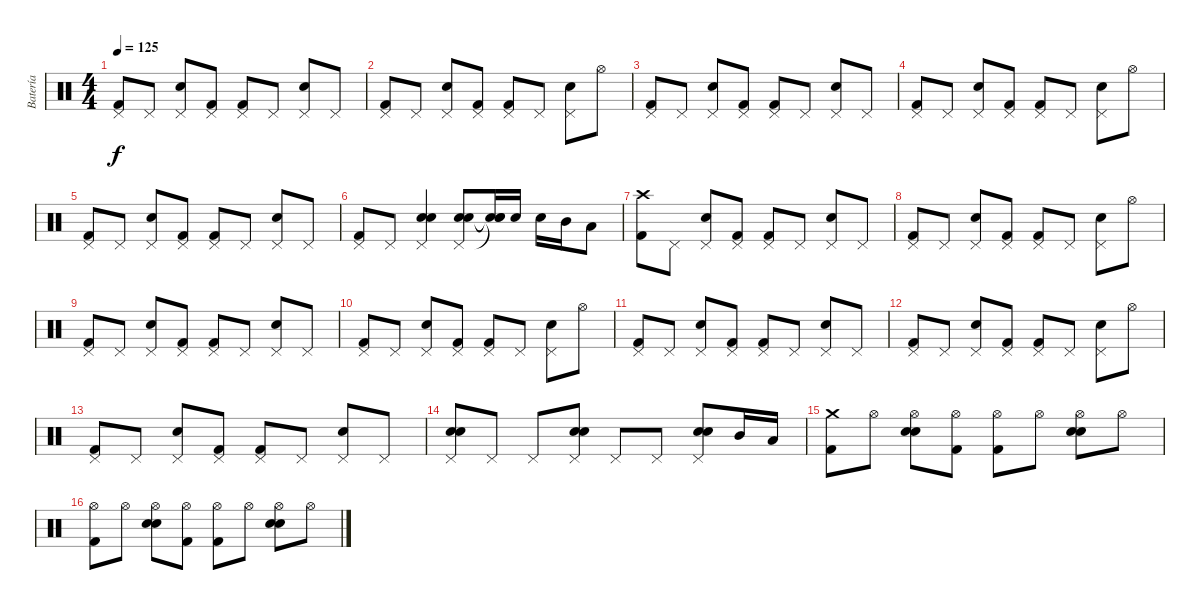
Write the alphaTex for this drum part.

\track ("Batería" "Batería") {instrument percussion}
\staff {score}
\articulation defaults
\ts (4 4)
\tempo 125
\clef neutral
\ks c
("Kick (hit) 2" "Pedal Hi-Hat (hit)").8{dy f} "Pedal Hi-Hat (hit)".8 ("Electric Snare (hit)" "Pedal Hi-Hat (hit)").8 ("Kick (hit) 2" "Pedal Hi-Hat (hit)").8 ("Kick (hit) 2" "Pedal Hi-Hat (hit)").8 "Pedal Hi-Hat (hit)".8 ("Electric Snare (hit)" "Pedal Hi-Hat (hit)").8 "Pedal Hi-Hat (hit)".8 |
("Kick (hit) 2" "Pedal Hi-Hat (hit)").8 "Pedal Hi-Hat (hit)".8 ("Electric Snare (hit)" "Pedal Hi-Hat (hit)").8 ("Kick (hit) 2" "Pedal Hi-Hat (hit)").8 ("Kick (hit) 2" "Pedal Hi-Hat (hit)").8 "Pedal Hi-Hat (hit)".8 ("Electric Snare (hit)" "Pedal Hi-Hat (hit)").8 "Hi-Hat (open)".8 |
("Kick (hit) 2" "Pedal Hi-Hat (hit)").8 "Pedal Hi-Hat (hit)".8 ("Electric Snare (hit)" "Pedal Hi-Hat (hit)").8 ("Kick (hit) 2" "Pedal Hi-Hat (hit)").8 ("Kick (hit) 2" "Pedal Hi-Hat (hit)").8 "Pedal Hi-Hat (hit)".8 ("Electric Snare (hit)" "Pedal Hi-Hat (hit)").8 "Pedal Hi-Hat (hit)".8 |
("Kick (hit) 2" "Pedal Hi-Hat (hit)").8 "Pedal Hi-Hat (hit)".8 ("Electric Snare (hit)" "Pedal Hi-Hat (hit)").8 ("Kick (hit) 2" "Pedal Hi-Hat (hit)").8 ("Kick (hit) 2" "Pedal Hi-Hat (hit)").8 "Pedal Hi-Hat (hit)".8 ("Electric Snare (hit)" "Pedal Hi-Hat (hit)").8 "Hi-Hat (open)".8 |
("Kick (hit) 2" "Pedal Hi-Hat (hit)").8 "Pedal Hi-Hat (hit)".8 ("Electric Snare (hit)" "Pedal Hi-Hat (hit)").8 ("Kick (hit) 2" "Pedal Hi-Hat (hit)").8 ("Kick (hit) 2" "Pedal Hi-Hat (hit)").8 "Pedal Hi-Hat (hit)".8 ("Electric Snare (hit)" "Pedal Hi-Hat (hit)").8 "Pedal Hi-Hat (hit)".8 |
("Kick (hit) 2" "Pedal Hi-Hat (hit)").8 "Pedal Hi-Hat (hit)".8 ("Electric Snare (hit)" "Pedal Hi-Hat (hit)" "Snare (hit) 2").4 ("Electric Snare (hit)" "Pedal Hi-Hat (hit)" "Snare (hit) 2").8 ("Snare (hit)"{t} "Snare (hit)"{t} "Snare (hit)"{t}).16 "Electric Snare (hit)".16 "Electric Snare (hit)".16 "Mid Tom (hit)".16 "Low Tom (hit)".8 |
("Kick (hit) 2" "Crash high (hit)").8 "Pedal Hi-Hat (hit)".8 ("Electric Snare (hit)" "Pedal Hi-Hat (hit)").8 ("Kick (hit) 2" "Pedal Hi-Hat (hit)").8 ("Kick (hit) 2" "Pedal Hi-Hat (hit)").8 "Pedal Hi-Hat (hit)".8 ("Electric Snare (hit)" "Pedal Hi-Hat (hit)").8 "Pedal Hi-Hat (hit)".8 |
("Kick (hit) 2" "Pedal Hi-Hat (hit)").8 "Pedal Hi-Hat (hit)".8 ("Electric Snare (hit)" "Pedal Hi-Hat (hit)").8 ("Kick (hit) 2" "Pedal Hi-Hat (hit)").8 ("Kick (hit) 2" "Pedal Hi-Hat (hit)").8 "Pedal Hi-Hat (hit)".8 ("Electric Snare (hit)" "Pedal Hi-Hat (hit)").8 "Hi-Hat (open)".8 |
("Kick (hit) 2" "Pedal Hi-Hat (hit)").8 "Pedal Hi-Hat (hit)".8 ("Electric Snare (hit)" "Pedal Hi-Hat (hit)").8 ("Kick (hit) 2" "Pedal Hi-Hat (hit)").8 ("Kick (hit) 2" "Pedal Hi-Hat (hit)").8 "Pedal Hi-Hat (hit)".8 ("Electric Snare (hit)" "Pedal Hi-Hat (hit)").8 "Pedal Hi-Hat (hit)".8 |
("Kick (hit) 2" "Pedal Hi-Hat (hit)").8 "Pedal Hi-Hat (hit)".8 ("Electric Snare (hit)" "Pedal Hi-Hat (hit)").8 ("Kick (hit) 2" "Pedal Hi-Hat (hit)").8 ("Kick (hit) 2" "Pedal Hi-Hat (hit)").8 "Pedal Hi-Hat (hit)".8 ("Electric Snare (hit)" "Pedal Hi-Hat (hit)").8 "Hi-Hat (open)".8 |
("Kick (hit) 2" "Pedal Hi-Hat (hit)").8 "Pedal Hi-Hat (hit)".8 ("Electric Snare (hit)" "Pedal Hi-Hat (hit)").8 ("Kick (hit) 2" "Pedal Hi-Hat (hit)").8 ("Kick (hit) 2" "Pedal Hi-Hat (hit)").8 "Pedal Hi-Hat (hit)".8 ("Electric Snare (hit)" "Pedal Hi-Hat (hit)").8 "Pedal Hi-Hat (hit)".8 |
("Kick (hit) 2" "Pedal Hi-Hat (hit)").8 "Pedal Hi-Hat (hit)".8 ("Electric Snare (hit)" "Pedal Hi-Hat (hit)").8 ("Kick (hit) 2" "Pedal Hi-Hat (hit)").8 ("Kick (hit) 2" "Pedal Hi-Hat (hit)").8 "Pedal Hi-Hat (hit)".8 ("Electric Snare (hit)" "Pedal Hi-Hat (hit)").8 "Hi-Hat (open)".8 |
("Kick (hit) 2" "Pedal Hi-Hat (hit)").8 "Pedal Hi-Hat (hit)".8 ("Electric Snare (hit)" "Pedal Hi-Hat (hit)").8 ("Kick (hit) 2" "Pedal Hi-Hat (hit)").8 ("Kick (hit) 2" "Pedal Hi-Hat (hit)").8 "Pedal Hi-Hat (hit)".8 ("Electric Snare (hit)" "Pedal Hi-Hat (hit)").8 "Pedal Hi-Hat (hit)".8 |
("Electric Snare (hit)" "Pedal Hi-Hat (hit)" "Snare (hit) 2").8 "Pedal Hi-Hat (hit)".8 "Pedal Hi-Hat (hit)".8 ("Electric Snare (hit)" "Pedal Hi-Hat (hit)" "Snare (hit) 2").8 "Pedal Hi-Hat (hit)".8 "Pedal Hi-Hat (hit)".8 ("Electric Snare (hit)" "Pedal Hi-Hat (hit)" "Snare (hit) 2").8 "Mid Tom (hit)".16 "Low Tom (hit)".16 |
("Kick (hit) 2" "Crash medium (hit)").8 "Hi-Hat (open)".8 ("Electric Snare (hit)" "Hi-Hat (open)" "Snare (hit) 2").8 ("Kick (hit) 2" "Hi-Hat (open)").8 ("Kick (hit) 2" "Hi-Hat (open)").8 "Hi-Hat (open)".8 ("Electric Snare (hit)" "Hi-Hat (open)" "Snare (hit) 2").8 "Hi-Hat (open)".8 |
("Kick (hit) 2" "Hi-Hat (open)").8 "Hi-Hat (open)".8 ("Electric Snare (hit)" "Hi-Hat (open)" "Snare (hit) 2").8 ("Kick (hit) 2" "Hi-Hat (open)").8 ("Kick (hit) 2" "Hi-Hat (open)").8 "Hi-Hat (open)".8 ("Electric Snare (hit)" "Hi-Hat (open)" "Snare (hit) 2").8 "Hi-Hat (open)".8
